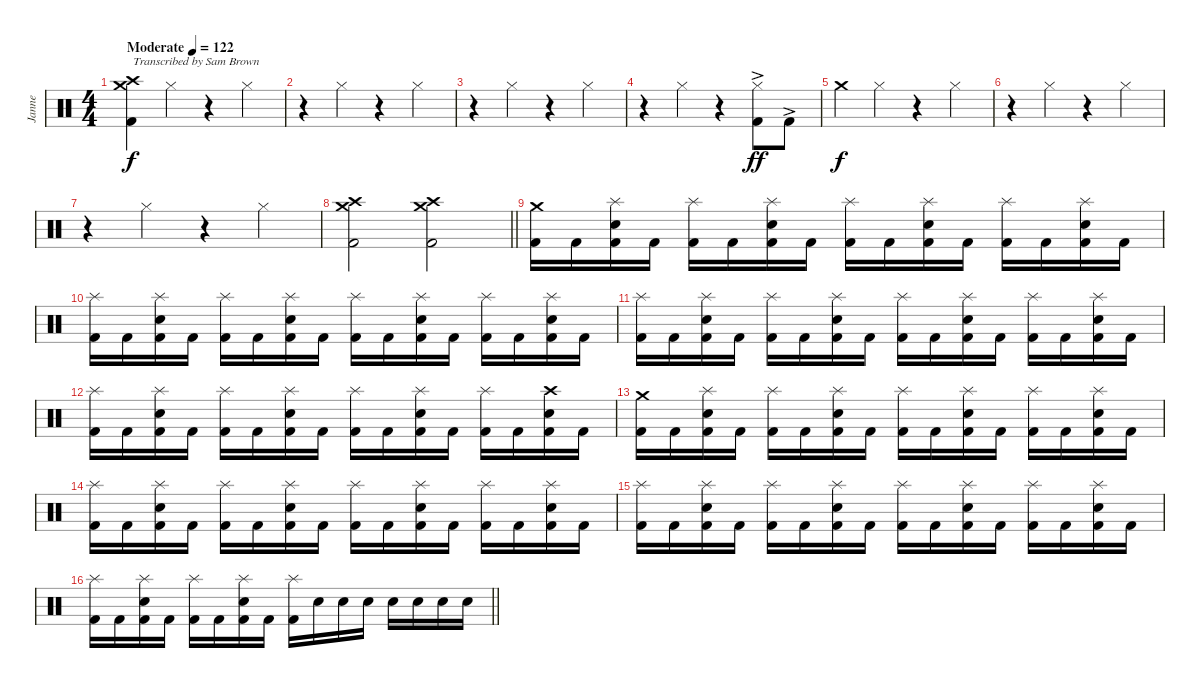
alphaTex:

\track ("Janne" "Janne") {instrument percussion}
\staff {score}
\articulation defaults
\ts (4 4)
\tempo (122 "Moderate")
\clef neutral
\ks c
("Kick (hit) 2" "Crash medium (hit)" "Crash high (hit)").4{txt "Transcribed by Sam Brown" dy f} "Hi-Hat (closed)".4 r.4 "Hi-Hat (closed)".4 |
r.4 "Hi-Hat (closed)".4 r.4 "Hi-Hat (closed)".4 |
r.4 "Hi-Hat (closed)".4 r.4 "Hi-Hat (closed)".4 |
r.4 "Hi-Hat (closed)".4 r.4 ("Kick (hit) 2"{ac} "Hi-Hat (closed)").8{dy ff} "Kick (hit) 2"{ac}.8 |
"Crash medium (hit)".4{dy f} "Hi-Hat (closed)".4 r.4 "Hi-Hat (closed)".4 |
r.4 "Hi-Hat (closed)".4 r.4 "Hi-Hat (closed)".4 |
r.4 "Hi-Hat (closed)".4 r.4 "Hi-Hat (closed)".4 |
\barLineRight lightlight
("Kick (hit) 2" "Crash medium (hit)" "Crash high (hit)").2 ("Kick (hit) 2" "Crash medium (hit)" "Crash high (hit)").2 |
\section ("" "")
("Kick (hit) 2" "Crash medium (hit)").16 "Kick (hit) 2".16 ("Kick (hit) 2" "Snare (hit) 2" "Splash (hit)").16 "Kick (hit) 2".16 ("Kick (hit) 2" "Splash (hit)").16 "Kick (hit) 2".16 ("Kick (hit) 2" "Snare (hit) 2" "Splash (hit)").16 "Kick (hit) 2".16 ("Kick (hit) 2" "Splash (hit)").16 "Kick (hit) 2".16 ("Kick (hit) 2" "Snare (hit) 2" "Splash (hit)").16 "Kick (hit) 2".16 ("Kick (hit) 2" "Splash (hit)").16 "Kick (hit) 2".16 ("Kick (hit) 2" "Snare (hit) 2" "Splash (hit)").16 "Kick (hit) 2".16 |
("Kick (hit) 2" "Splash (hit)").16 "Kick (hit) 2".16 ("Kick (hit) 2" "Snare (hit) 2" "Splash (hit)").16 "Kick (hit) 2".16 ("Kick (hit) 2" "Splash (hit)").16 "Kick (hit) 2".16 ("Kick (hit) 2" "Snare (hit) 2" "Splash (hit)").16 "Kick (hit) 2".16 ("Kick (hit) 2" "Splash (hit)").16 "Kick (hit) 2".16 ("Kick (hit) 2" "Snare (hit) 2" "Splash (hit)").16 "Kick (hit) 2".16 ("Kick (hit) 2" "Splash (hit)").16 "Kick (hit) 2".16 ("Kick (hit) 2" "Snare (hit) 2" "Splash (hit)").16 "Kick (hit) 2".16 |
("Kick (hit) 2" "Splash (hit)").16 "Kick (hit) 2".16 ("Kick (hit) 2" "Snare (hit) 2" "Splash (hit)").16 "Kick (hit) 2".16 ("Kick (hit) 2" "Splash (hit)").16 "Kick (hit) 2".16 ("Kick (hit) 2" "Snare (hit) 2" "Splash (hit)").16 "Kick (hit) 2".16 ("Kick (hit) 2" "Splash (hit)").16 "Kick (hit) 2".16 ("Kick (hit) 2" "Snare (hit) 2" "Splash (hit)").16 "Kick (hit) 2".16 ("Kick (hit) 2" "Splash (hit)").16 "Kick (hit) 2".16 ("Kick (hit) 2" "Snare (hit) 2" "Splash (hit)").16 "Kick (hit) 2".16 |
("Kick (hit) 2" "Splash (hit)").16 "Kick (hit) 2".16 ("Kick (hit) 2" "Snare (hit) 2" "Splash (hit)").16 "Kick (hit) 2".16 ("Kick (hit) 2" "Splash (hit)").16 "Kick (hit) 2".16 ("Kick (hit) 2" "Snare (hit) 2" "Splash (hit)").16 "Kick (hit) 2".16 ("Kick (hit) 2" "Splash (hit)").16 "Kick (hit) 2".16 ("Kick (hit) 2" "Snare (hit) 2" "Splash (hit)").16 "Kick (hit) 2".16 ("Kick (hit) 2" "Splash (hit)").16 "Kick (hit) 2".16 ("Kick (hit) 2" "Snare (hit) 2" "Crash high (hit)").16 "Kick (hit) 2".16 |
("Kick (hit) 2" "Crash medium (hit)").16 "Kick (hit) 2".16 ("Kick (hit) 2" "Snare (hit) 2" "Splash (hit)").16 "Kick (hit) 2".16 ("Kick (hit) 2" "Splash (hit)").16 "Kick (hit) 2".16 ("Kick (hit) 2" "Snare (hit) 2" "Splash (hit)").16 "Kick (hit) 2".16 ("Kick (hit) 2" "Splash (hit)").16 "Kick (hit) 2".16 ("Kick (hit) 2" "Snare (hit) 2" "Splash (hit)").16 "Kick (hit) 2".16 ("Kick (hit) 2" "Splash (hit)").16 "Kick (hit) 2".16 ("Kick (hit) 2" "Snare (hit) 2" "Splash (hit)").16 "Kick (hit) 2".16 |
("Kick (hit) 2" "Splash (hit)").16 "Kick (hit) 2".16 ("Kick (hit) 2" "Snare (hit) 2" "Splash (hit)").16 "Kick (hit) 2".16 ("Kick (hit) 2" "Splash (hit)").16 "Kick (hit) 2".16 ("Kick (hit) 2" "Snare (hit) 2" "Splash (hit)").16 "Kick (hit) 2".16 ("Kick (hit) 2" "Splash (hit)").16 "Kick (hit) 2".16 ("Kick (hit) 2" "Snare (hit) 2" "Splash (hit)").16 "Kick (hit) 2".16 ("Kick (hit) 2" "Splash (hit)").16 "Kick (hit) 2".16 ("Kick (hit) 2" "Snare (hit) 2" "Splash (hit)").16 "Kick (hit) 2".16 |
("Kick (hit) 2" "Splash (hit)").16 "Kick (hit) 2".16 ("Kick (hit) 2" "Snare (hit) 2" "Splash (hit)").16 "Kick (hit) 2".16 ("Kick (hit) 2" "Splash (hit)").16 "Kick (hit) 2".16 ("Kick (hit) 2" "Snare (hit) 2" "Splash (hit)").16 "Kick (hit) 2".16 ("Kick (hit) 2" "Splash (hit)").16 "Kick (hit) 2".16 ("Kick (hit) 2" "Snare (hit) 2" "Splash (hit)").16 "Kick (hit) 2".16 ("Kick (hit) 2" "Splash (hit)").16 "Kick (hit) 2".16 ("Kick (hit) 2" "Snare (hit) 2" "Splash (hit)").16 "Kick (hit) 2".16 |
\barLineRight lightlight
("Kick (hit) 2" "Splash (hit)").16 "Kick (hit) 2".16 ("Kick (hit) 2" "Snare (hit) 2" "Splash (hit)").16 "Kick (hit) 2".16 ("Kick (hit) 2" "Splash (hit)").16 "Kick (hit) 2".16 ("Kick (hit) 2" "Snare (hit) 2" "Splash (hit)").16 "Kick (hit) 2".16 ("Kick (hit) 2" "Splash (hit)").16 "Snare (hit) 2".16 "Snare (hit) 2".16 "Snare (hit) 2".16 "Snare (hit) 2".16 "Snare (hit) 2".16 "Snare (hit) 2".16 "Snare (hit) 2".16
